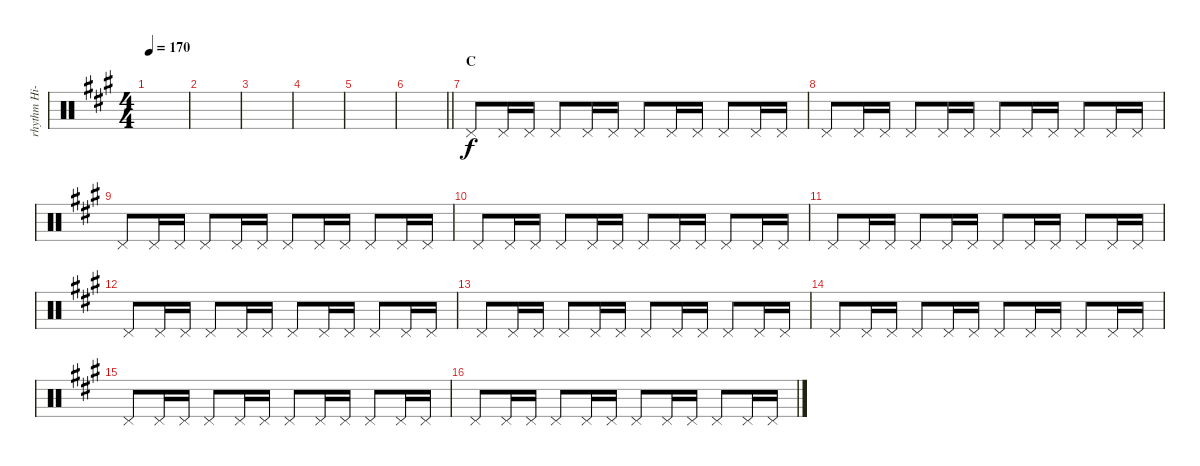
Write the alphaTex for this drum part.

\track ("rhythm Hi-hat" "rhythm Hi-") {instrument percussion}
\staff {score}
\articulation defaults
\ts (4 4)
\tempo 170
\clef neutral
\ks a
|
|
|
|
|
\barLineRight lightlight
|
\section ("" "C")
"Pedal Hi-Hat (hit)".8 "Pedal Hi-Hat (hit)".16 "Pedal Hi-Hat (hit)".16 "Pedal Hi-Hat (hit)".8 "Pedal Hi-Hat (hit)".16 "Pedal Hi-Hat (hit)".16 "Pedal Hi-Hat (hit)".8 "Pedal Hi-Hat (hit)".16 "Pedal Hi-Hat (hit)".16 "Pedal Hi-Hat (hit)".8 "Pedal Hi-Hat (hit)".16 "Pedal Hi-Hat (hit)".16 |
"Pedal Hi-Hat (hit)".8 "Pedal Hi-Hat (hit)".16 "Pedal Hi-Hat (hit)".16 "Pedal Hi-Hat (hit)".8 "Pedal Hi-Hat (hit)".16 "Pedal Hi-Hat (hit)".16 "Pedal Hi-Hat (hit)".8 "Pedal Hi-Hat (hit)".16 "Pedal Hi-Hat (hit)".16 "Pedal Hi-Hat (hit)".8 "Pedal Hi-Hat (hit)".16 "Pedal Hi-Hat (hit)".16 |
"Pedal Hi-Hat (hit)".8 "Pedal Hi-Hat (hit)".16 "Pedal Hi-Hat (hit)".16 "Pedal Hi-Hat (hit)".8 "Pedal Hi-Hat (hit)".16 "Pedal Hi-Hat (hit)".16 "Pedal Hi-Hat (hit)".8 "Pedal Hi-Hat (hit)".16 "Pedal Hi-Hat (hit)".16 "Pedal Hi-Hat (hit)".8 "Pedal Hi-Hat (hit)".16 "Pedal Hi-Hat (hit)".16 |
"Pedal Hi-Hat (hit)".8 "Pedal Hi-Hat (hit)".16 "Pedal Hi-Hat (hit)".16 "Pedal Hi-Hat (hit)".8 "Pedal Hi-Hat (hit)".16 "Pedal Hi-Hat (hit)".16 "Pedal Hi-Hat (hit)".8 "Pedal Hi-Hat (hit)".16 "Pedal Hi-Hat (hit)".16 "Pedal Hi-Hat (hit)".8 "Pedal Hi-Hat (hit)".16 "Pedal Hi-Hat (hit)".16 |
"Pedal Hi-Hat (hit)".8 "Pedal Hi-Hat (hit)".16 "Pedal Hi-Hat (hit)".16 "Pedal Hi-Hat (hit)".8 "Pedal Hi-Hat (hit)".16 "Pedal Hi-Hat (hit)".16 "Pedal Hi-Hat (hit)".8 "Pedal Hi-Hat (hit)".16 "Pedal Hi-Hat (hit)".16 "Pedal Hi-Hat (hit)".8 "Pedal Hi-Hat (hit)".16 "Pedal Hi-Hat (hit)".16 |
"Pedal Hi-Hat (hit)".8 "Pedal Hi-Hat (hit)".16 "Pedal Hi-Hat (hit)".16 "Pedal Hi-Hat (hit)".8 "Pedal Hi-Hat (hit)".16 "Pedal Hi-Hat (hit)".16 "Pedal Hi-Hat (hit)".8 "Pedal Hi-Hat (hit)".16 "Pedal Hi-Hat (hit)".16 "Pedal Hi-Hat (hit)".8 "Pedal Hi-Hat (hit)".16 "Pedal Hi-Hat (hit)".16 |
"Pedal Hi-Hat (hit)".8 "Pedal Hi-Hat (hit)".16 "Pedal Hi-Hat (hit)".16 "Pedal Hi-Hat (hit)".8 "Pedal Hi-Hat (hit)".16 "Pedal Hi-Hat (hit)".16 "Pedal Hi-Hat (hit)".8 "Pedal Hi-Hat (hit)".16 "Pedal Hi-Hat (hit)".16 "Pedal Hi-Hat (hit)".8 "Pedal Hi-Hat (hit)".16 "Pedal Hi-Hat (hit)".16 |
"Pedal Hi-Hat (hit)".8 "Pedal Hi-Hat (hit)".16 "Pedal Hi-Hat (hit)".16 "Pedal Hi-Hat (hit)".8 "Pedal Hi-Hat (hit)".16 "Pedal Hi-Hat (hit)".16 "Pedal Hi-Hat (hit)".8 "Pedal Hi-Hat (hit)".16 "Pedal Hi-Hat (hit)".16 "Pedal Hi-Hat (hit)".8 "Pedal Hi-Hat (hit)".16 "Pedal Hi-Hat (hit)".16 |
"Pedal Hi-Hat (hit)".8 "Pedal Hi-Hat (hit)".16 "Pedal Hi-Hat (hit)".16 "Pedal Hi-Hat (hit)".8 "Pedal Hi-Hat (hit)".16 "Pedal Hi-Hat (hit)".16 "Pedal Hi-Hat (hit)".8 "Pedal Hi-Hat (hit)".16 "Pedal Hi-Hat (hit)".16 "Pedal Hi-Hat (hit)".8 "Pedal Hi-Hat (hit)".16 "Pedal Hi-Hat (hit)".16 |
"Pedal Hi-Hat (hit)".8 "Pedal Hi-Hat (hit)".16 "Pedal Hi-Hat (hit)".16 "Pedal Hi-Hat (hit)".8 "Pedal Hi-Hat (hit)".16 "Pedal Hi-Hat (hit)".16 "Pedal Hi-Hat (hit)".8 "Pedal Hi-Hat (hit)".16 "Pedal Hi-Hat (hit)".16 "Pedal Hi-Hat (hit)".8 "Pedal Hi-Hat (hit)".16 "Pedal Hi-Hat (hit)".16
